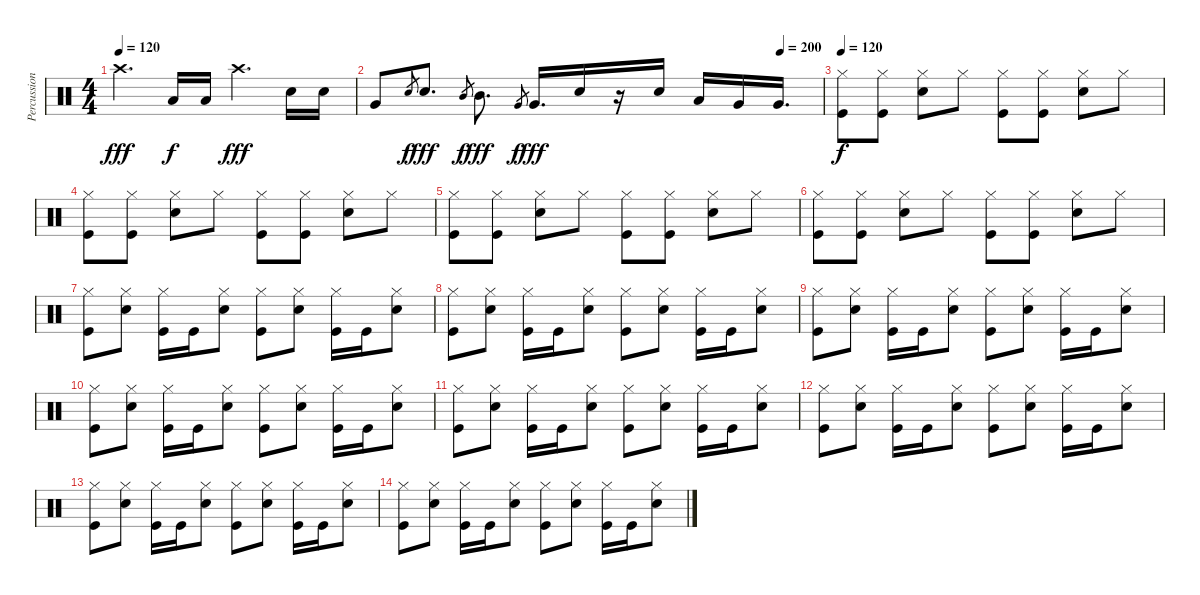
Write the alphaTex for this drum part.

\track ("Percussion" "Percussion") {instrument percussion}
\staff {score}
\articulation defaults
\ts (4 4)
\tempo 120
\clef neutral
\ks c "Crash high (hit)".4{d dy fff} "Low Tom (hit)".16{dy f} "Low Tom (hit)".16 "Crash high (hit)".4{d dy fff} "Snare (hit) 2".16 "Snare (hit) 2".16
|
\tempo (200 0.90625)
"Very Low Tom (hit)".8 "Snare (hit) 2".8{gr dy f} "Snare (hit) 2".8{d dy fff} "Mid Tom (hit)".8{gr dy f} "Mid Tom (hit)".8{d dy fff} "Very Low Tom (hit)".8{gr dy f} "Very Low Tom (hit)".16{d dy fff} "Snare (hit) 2".16 r.16 "Snare (hit) 2".16 "Low Tom (hit)".16 "Very Low Tom (hit)".16 "Very Low Tom (hit)".16{d} |
\tempo 120
("Hi-Hat (closed)" "Kick (hit)").8{dy f} ("Kick (hit)" "Hi-Hat (closed)").8 ("Snare (hit) 2" "Hi-Hat (closed)").8 "Hi-Hat (closed)".8 ("Hi-Hat (closed)" "Kick (hit)").8 ("Kick (hit)" "Hi-Hat (closed)").8 ("Snare (hit) 2" "Hi-Hat (closed)").8 "Hi-Hat (closed)".8 |
("Hi-Hat (closed)" "Kick (hit)").8 ("Kick (hit)" "Hi-Hat (closed)").8 ("Snare (hit) 2" "Hi-Hat (closed)").8 "Hi-Hat (closed)".8 ("Hi-Hat (closed)" "Kick (hit)").8 ("Kick (hit)" "Hi-Hat (closed)").8 ("Snare (hit) 2" "Hi-Hat (closed)").8 "Hi-Hat (closed)".8 |
("Hi-Hat (closed)" "Kick (hit)").8 ("Kick (hit)" "Hi-Hat (closed)").8 ("Snare (hit) 2" "Hi-Hat (closed)").8 "Hi-Hat (closed)".8 ("Hi-Hat (closed)" "Kick (hit)").8 ("Kick (hit)" "Hi-Hat (closed)").8 ("Snare (hit) 2" "Hi-Hat (closed)").8 "Hi-Hat (closed)".8 |
("Hi-Hat (closed)" "Kick (hit)").8 ("Kick (hit)" "Hi-Hat (closed)").8 ("Snare (hit) 2" "Hi-Hat (closed)").8 "Hi-Hat (closed)".8 ("Hi-Hat (closed)" "Kick (hit)").8 ("Kick (hit)" "Hi-Hat (closed)").8 ("Snare (hit) 2" "Hi-Hat (closed)").8 "Hi-Hat (closed)".8 |
("Hi-Hat (closed)" "Kick (hit)").8 ("Hi-Hat (closed)" "Snare (hit) 2").8 ("Hi-Hat (closed)" "Kick (hit)").16 "Kick (hit)".16 ("Hi-Hat (closed)" "Snare (hit) 2").8 ("Hi-Hat (closed)" "Kick (hit)").8 ("Hi-Hat (closed)" "Snare (hit) 2").8 ("Hi-Hat (closed)" "Kick (hit)").16 "Kick (hit)".16 ("Hi-Hat (closed)" "Snare (hit) 2").8 |
("Hi-Hat (closed)" "Kick (hit)").8 ("Hi-Hat (closed)" "Snare (hit) 2").8 ("Hi-Hat (closed)" "Kick (hit)").16 "Kick (hit)".16 ("Hi-Hat (closed)" "Snare (hit) 2").8 ("Hi-Hat (closed)" "Kick (hit)").8 ("Hi-Hat (closed)" "Snare (hit) 2").8 ("Hi-Hat (closed)" "Kick (hit)").16 "Kick (hit)".16 ("Hi-Hat (closed)" "Snare (hit) 2").8 |
("Hi-Hat (closed)" "Kick (hit)").8 ("Hi-Hat (closed)" "Snare (hit) 2").8 ("Hi-Hat (closed)" "Kick (hit)").16 "Kick (hit)".16 ("Hi-Hat (closed)" "Snare (hit) 2").8 ("Hi-Hat (closed)" "Kick (hit)").8 ("Hi-Hat (closed)" "Snare (hit) 2").8 ("Hi-Hat (closed)" "Kick (hit)").16 "Kick (hit)".16 ("Hi-Hat (closed)" "Snare (hit) 2").8 |
("Hi-Hat (closed)" "Kick (hit)").8 ("Hi-Hat (closed)" "Snare (hit) 2").8 ("Hi-Hat (closed)" "Kick (hit)").16 "Kick (hit)".16 ("Hi-Hat (closed)" "Snare (hit) 2").8 ("Hi-Hat (closed)" "Kick (hit)").8 ("Hi-Hat (closed)" "Snare (hit) 2").8 ("Hi-Hat (closed)" "Kick (hit)").16 "Kick (hit)".16 ("Hi-Hat (closed)" "Snare (hit) 2").8 |
("Hi-Hat (closed)" "Kick (hit)").8 ("Hi-Hat (closed)" "Snare (hit) 2").8 ("Hi-Hat (closed)" "Kick (hit)").16 "Kick (hit)".16 ("Hi-Hat (closed)" "Snare (hit) 2").8 ("Hi-Hat (closed)" "Kick (hit)").8 ("Hi-Hat (closed)" "Snare (hit) 2").8 ("Hi-Hat (closed)" "Kick (hit)").16 "Kick (hit)".16 ("Hi-Hat (closed)" "Snare (hit) 2").8 |
("Hi-Hat (closed)" "Kick (hit)").8 ("Hi-Hat (closed)" "Snare (hit) 2").8 ("Hi-Hat (closed)" "Kick (hit)").16 "Kick (hit)".16 ("Hi-Hat (closed)" "Snare (hit) 2").8 ("Hi-Hat (closed)" "Kick (hit)").8 ("Hi-Hat (closed)" "Snare (hit) 2").8 ("Hi-Hat (closed)" "Kick (hit)").16 "Kick (hit)".16 ("Hi-Hat (closed)" "Snare (hit) 2").8 |
("Hi-Hat (closed)" "Kick (hit)").8 ("Hi-Hat (closed)" "Snare (hit) 2").8 ("Hi-Hat (closed)" "Kick (hit)").16 "Kick (hit)".16 ("Hi-Hat (closed)" "Snare (hit) 2").8 ("Hi-Hat (closed)" "Kick (hit)").8 ("Hi-Hat (closed)" "Snare (hit) 2").8 ("Hi-Hat (closed)" "Kick (hit)").16 "Kick (hit)".16 ("Hi-Hat (closed)" "Snare (hit) 2").8 |
("Hi-Hat (closed)" "Kick (hit)").8 ("Hi-Hat (closed)" "Snare (hit) 2").8 ("Hi-Hat (closed)" "Kick (hit)").16 "Kick (hit)".16 ("Hi-Hat (closed)" "Snare (hit) 2").8 ("Hi-Hat (closed)" "Kick (hit)").8 ("Hi-Hat (closed)" "Snare (hit) 2").8 ("Hi-Hat (closed)" "Kick (hit)").16 "Kick (hit)".16 ("Hi-Hat (closed)" "Snare (hit) 2").8
